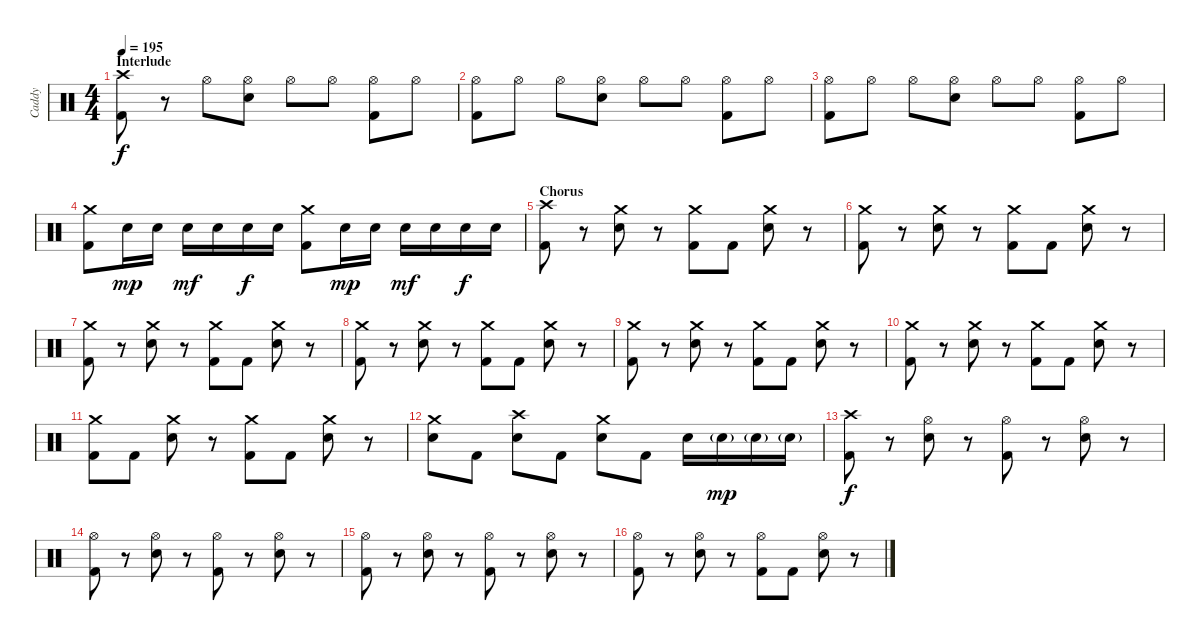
\track ("Caddy" "Caddy") {instrument percussion}
\staff {score}
\articulation defaults
\ts (4 4)
\section ("" "Interlude")
\tempo 195
\clef neutral
\ks c
("Crash high (hit)" "Kick (hit) 2").8{dy f} r.8 "Hi-Hat (open)".8 ("Hi-Hat (open)" "Electric Snare (hit)").8 "Hi-Hat (open)".8 "Hi-Hat (open)".8 ("Hi-Hat (open)" "Kick (hit) 2").8 "Hi-Hat (open)".8 |
("Hi-Hat (open)" "Kick (hit) 2").8 "Hi-Hat (open)".8 "Hi-Hat (open)".8 ("Hi-Hat (open)" "Electric Snare (hit)").8 "Hi-Hat (open)".8 "Hi-Hat (open)".8 ("Hi-Hat (open)" "Kick (hit) 2").8 "Hi-Hat (open)".8 |
("Hi-Hat (open)" "Kick (hit) 2").8 "Hi-Hat (open)".8 "Hi-Hat (open)".8 ("Hi-Hat (open)" "Electric Snare (hit)").8 "Hi-Hat (open)".8 "Hi-Hat (open)".8 ("Hi-Hat (open)" "Kick (hit) 2").8 "Hi-Hat (open)".8 |
("Crash medium (hit)" "Kick (hit) 2").8 "Electric Snare (hit)".16{dy mp} "Electric Snare (hit)".16 "Electric Snare (hit)".16{dy mf} "Electric Snare (hit)".16 "Electric Snare (hit)".16{dy f} "Electric Snare (hit)".16 ("Crash medium (hit)" "Kick (hit) 2").8 "Electric Snare (hit)".16{dy mp} "Electric Snare (hit)".16 "Electric Snare (hit)".16{dy mf} "Electric Snare (hit)".16 "Electric Snare (hit)".16{dy f} "Electric Snare (hit)".16 |
\section ("" "Chorus")
("Crash high (hit)" "Kick (hit) 2").8 r.8 ("Crash medium (hit)" "Electric Snare (hit)").8 r.8 ("Crash medium (hit)" "Kick (hit) 2").8 "Kick (hit) 2".8 ("Crash medium (hit)" "Electric Snare (hit)").8 r.8 |
("Crash medium (hit)" "Kick (hit) 2").8 r.8 ("Crash medium (hit)" "Electric Snare (hit)").8 r.8 ("Crash medium (hit)" "Kick (hit) 2").8 "Kick (hit) 2".8 ("Crash medium (hit)" "Electric Snare (hit)").8 r.8 |
("Crash medium (hit)" "Kick (hit) 2").8 r.8 ("Crash medium (hit)" "Electric Snare (hit)").8 r.8 ("Crash medium (hit)" "Kick (hit) 2").8 "Kick (hit) 2".8 ("Crash medium (hit)" "Electric Snare (hit)").8 r.8 |
("Crash medium (hit)" "Kick (hit) 2").8 r.8 ("Crash medium (hit)" "Electric Snare (hit)").8 r.8 ("Crash medium (hit)" "Kick (hit) 2").8 "Kick (hit) 2".8 ("Crash medium (hit)" "Electric Snare (hit)").8 r.8 |
("Crash medium (hit)" "Kick (hit) 2").8 r.8 ("Crash medium (hit)" "Electric Snare (hit)").8 r.8 ("Crash medium (hit)" "Kick (hit) 2").8 "Kick (hit) 2".8 ("Crash medium (hit)" "Electric Snare (hit)").8 r.8 |
("Crash medium (hit)" "Kick (hit) 2").8 r.8 ("Crash medium (hit)" "Electric Snare (hit)").8 r.8 ("Crash medium (hit)" "Kick (hit) 2").8 "Kick (hit) 2".8 ("Crash medium (hit)" "Electric Snare (hit)").8 r.8 |
("Crash medium (hit)" "Kick (hit) 2").8 "Kick (hit) 2".8 ("Crash medium (hit)" "Electric Snare (hit)").8 r.8 ("Crash medium (hit)" "Kick (hit) 2").8 "Kick (hit) 2".8 ("Crash medium (hit)" "Electric Snare (hit)").8 r.8 |
("Crash medium (hit)" "Electric Snare (hit)").8 "Kick (hit) 2".8 ("Crash high (hit)" "Electric Snare (hit)").8 "Kick (hit) 2".8 ("Crash medium (hit)" "Electric Snare (hit)").8 "Kick (hit) 2".8 "Electric Snare (hit)".16 "Electric Snare (hit)"{g}.16{dy mp} "Electric Snare (hit)"{g}.16 "Electric Snare (hit)"{g}.16 |
("Crash high (hit)" "Kick (hit) 2").8{dy f} r.8 ("Hi-Hat (open)" "Electric Snare (hit)").8 r.8 ("Hi-Hat (open)" "Kick (hit) 2").8 r.8 ("Hi-Hat (open)" "Electric Snare (hit)").8 r.8 |
("Hi-Hat (open)" "Kick (hit) 2").8 r.8 ("Hi-Hat (open)" "Electric Snare (hit)").8 r.8 ("Hi-Hat (open)" "Kick (hit) 2").8 r.8 ("Hi-Hat (open)" "Electric Snare (hit)").8 r.8 |
("Hi-Hat (open)" "Kick (hit) 2").8 r.8 ("Hi-Hat (open)" "Electric Snare (hit)").8 r.8 ("Hi-Hat (open)" "Kick (hit) 2").8 r.8 ("Hi-Hat (open)" "Electric Snare (hit)").8 r.8 |
("Hi-Hat (open)" "Kick (hit) 2").8 r.8 ("Hi-Hat (open)" "Electric Snare (hit)").8 r.8 ("Hi-Hat (open)" "Kick (hit) 2").8 "Kick (hit) 2".8 ("Hi-Hat (open)" "Electric Snare (hit)").8 r.8
